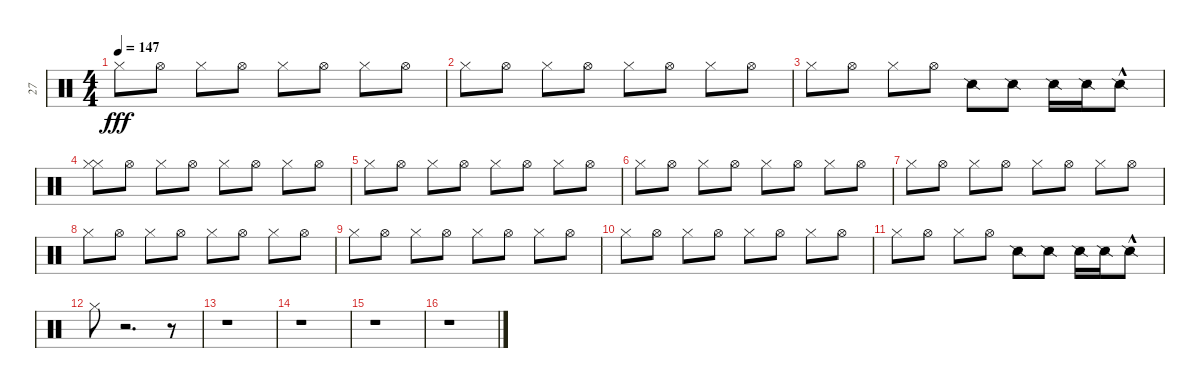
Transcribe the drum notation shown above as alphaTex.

\track ("27" "27") {instrument percussion}
\staff {score}
\articulation defaults
\ts (4 4)
\tempo 147
\clef neutral
\ks c "Hi-Hat (closed)".8{dy fff} "Hi-Hat (open)".8 "Hi-Hat (closed)".8 "Hi-Hat (open)".8 "Hi-Hat (closed)".8 "Hi-Hat (open)".8 "Hi-Hat (closed)".8 "Hi-Hat (open)".8
|
"Hi-Hat (closed)".8 "Hi-Hat (open)".8 "Hi-Hat (closed)".8 "Hi-Hat (open)".8 "Hi-Hat (closed)".8 "Hi-Hat (open)".8 "Hi-Hat (closed)".8 "Hi-Hat (open)".8 |
"Hi-Hat (closed)".8 "Hi-Hat (open)".8 "Hi-Hat (closed)".8 "Hi-Hat (open)".8 "Snare (side stick) 2".8 "Snare (side stick) 2".8 "Snare (side stick) 2".16 "Snare (side stick) 2".16 "Snare (side stick) 2"{hac}.8 |
("Hi-Hat (closed)" "Hi-Hat (closed)").8 "Hi-Hat (open)".8 "Hi-Hat (closed)".8 "Hi-Hat (open)".8 "Hi-Hat (closed)".8 "Hi-Hat (open)".8 "Hi-Hat (closed)".8 "Hi-Hat (open)".8 |
"Hi-Hat (closed)".8 "Hi-Hat (open)".8 "Hi-Hat (closed)".8 "Hi-Hat (open)".8 "Hi-Hat (closed)".8 "Hi-Hat (open)".8 "Hi-Hat (closed)".8 "Hi-Hat (open)".8 |
"Hi-Hat (closed)".8 "Hi-Hat (open)".8 "Hi-Hat (closed)".8 "Hi-Hat (open)".8 "Hi-Hat (closed)".8 "Hi-Hat (open)".8 "Hi-Hat (closed)".8 "Hi-Hat (open)".8 |
"Hi-Hat (closed)".8 "Hi-Hat (open)".8 "Hi-Hat (closed)".8 "Hi-Hat (open)".8 "Hi-Hat (closed)".8 "Hi-Hat (open)".8 "Hi-Hat (closed)".8 "Hi-Hat (open)".8 |
"Hi-Hat (closed)".8 "Hi-Hat (open)".8 "Hi-Hat (closed)".8 "Hi-Hat (open)".8 "Hi-Hat (closed)".8 "Hi-Hat (open)".8 "Hi-Hat (closed)".8 "Hi-Hat (open)".8 |
"Hi-Hat (closed)".8 "Hi-Hat (open)".8 "Hi-Hat (closed)".8 "Hi-Hat (open)".8 "Hi-Hat (closed)".8 "Hi-Hat (open)".8 "Hi-Hat (closed)".8 "Hi-Hat (open)".8 |
"Hi-Hat (closed)".8 "Hi-Hat (open)".8 "Hi-Hat (closed)".8 "Hi-Hat (open)".8 "Hi-Hat (closed)".8 "Hi-Hat (open)".8 "Hi-Hat (closed)".8 "Hi-Hat (open)".8 |
"Hi-Hat (closed)".8 "Hi-Hat (open)".8 "Hi-Hat (closed)".8 "Hi-Hat (open)".8 "Snare (side stick) 2".8 "Snare (side stick) 2".8 "Snare (side stick) 2".16 "Snare (side stick) 2".16 "Snare (side stick) 2"{hac}.8 |
"Hi-Hat (closed)".8 r.2{d} r.8 |
r.1 |
r.1 |
r.1 |
r.1
